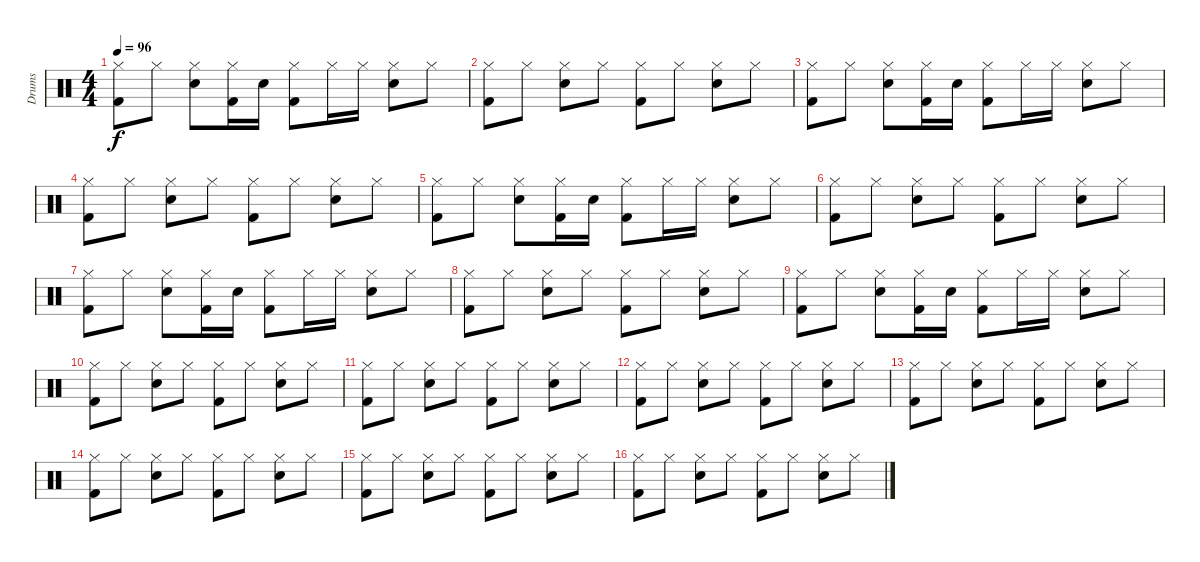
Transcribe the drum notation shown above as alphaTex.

\track ("Drums" "Drums") {instrument percussion}
\staff {score}
\articulation defaults
\ts (4 4)
\tempo 96
\clef neutral
\ks c
("Kick (hit) 2" "Hi-Hat (closed)").8{dy f} "Hi-Hat (closed)".8 ("Snare (hit) 2" "Hi-Hat (closed)").8 ("Kick (hit) 2" "Hi-Hat (closed)").16 "Snare (hit) 2".16 ("Kick (hit) 2" "Hi-Hat (closed)").8 "Hi-Hat (closed)".16 "Hi-Hat (closed)".16 ("Snare (hit) 2" "Hi-Hat (closed)").8 "Hi-Hat (closed)".8 |
("Kick (hit) 2" "Hi-Hat (closed)").8 "Hi-Hat (closed)".8 ("Snare (hit) 2" "Hi-Hat (closed)").8 "Hi-Hat (closed)".8 ("Kick (hit) 2" "Hi-Hat (closed)").8 "Hi-Hat (closed)".8 ("Snare (hit) 2" "Hi-Hat (closed)").8 "Hi-Hat (closed)".8 |
("Kick (hit) 2" "Hi-Hat (closed)").8 "Hi-Hat (closed)".8 ("Snare (hit) 2" "Hi-Hat (closed)").8 ("Kick (hit) 2" "Hi-Hat (closed)").16 "Snare (hit) 2".16 ("Kick (hit) 2" "Hi-Hat (closed)").8 "Hi-Hat (closed)".16 "Hi-Hat (closed)".16 ("Snare (hit) 2" "Hi-Hat (closed)").8 "Hi-Hat (closed)".8 |
("Kick (hit) 2" "Hi-Hat (closed)").8 "Hi-Hat (closed)".8 ("Snare (hit) 2" "Hi-Hat (closed)").8 "Hi-Hat (closed)".8 ("Kick (hit) 2" "Hi-Hat (closed)").8 "Hi-Hat (closed)".8 ("Snare (hit) 2" "Hi-Hat (closed)").8 "Hi-Hat (closed)".8 |
("Kick (hit) 2" "Hi-Hat (closed)").8 "Hi-Hat (closed)".8 ("Snare (hit) 2" "Hi-Hat (closed)").8 ("Kick (hit) 2" "Hi-Hat (closed)").16 "Snare (hit) 2".16 ("Kick (hit) 2" "Hi-Hat (closed)").8 "Hi-Hat (closed)".16 "Hi-Hat (closed)".16 ("Snare (hit) 2" "Hi-Hat (closed)").8 "Hi-Hat (closed)".8 |
("Kick (hit) 2" "Hi-Hat (closed)").8 "Hi-Hat (closed)".8 ("Snare (hit) 2" "Hi-Hat (closed)").8 "Hi-Hat (closed)".8 ("Kick (hit) 2" "Hi-Hat (closed)").8 "Hi-Hat (closed)".8 ("Snare (hit) 2" "Hi-Hat (closed)").8 "Hi-Hat (closed)".8 |
("Kick (hit) 2" "Hi-Hat (closed)").8 "Hi-Hat (closed)".8 ("Snare (hit) 2" "Hi-Hat (closed)").8 ("Kick (hit) 2" "Hi-Hat (closed)").16 "Snare (hit) 2".16 ("Kick (hit) 2" "Hi-Hat (closed)").8 "Hi-Hat (closed)".16 "Hi-Hat (closed)".16 ("Snare (hit) 2" "Hi-Hat (closed)").8 "Hi-Hat (closed)".8 |
("Kick (hit) 2" "Hi-Hat (closed)").8 "Hi-Hat (closed)".8 ("Snare (hit) 2" "Hi-Hat (closed)").8 "Hi-Hat (closed)".8 ("Kick (hit) 2" "Hi-Hat (closed)").8 "Hi-Hat (closed)".8 ("Snare (hit) 2" "Hi-Hat (closed)").8 "Hi-Hat (closed)".8 |
("Kick (hit) 2" "Hi-Hat (closed)").8 "Hi-Hat (closed)".8 ("Snare (hit) 2" "Hi-Hat (closed)").8 ("Kick (hit) 2" "Hi-Hat (closed)").16 "Snare (hit) 2".16 ("Kick (hit) 2" "Hi-Hat (closed)").8 "Hi-Hat (closed)".16 "Hi-Hat (closed)".16 ("Snare (hit) 2" "Hi-Hat (closed)").8 "Hi-Hat (closed)".8 |
("Kick (hit) 2" "Hi-Hat (closed)").8 "Hi-Hat (closed)".8 ("Snare (hit) 2" "Hi-Hat (closed)").8 "Hi-Hat (closed)".8 ("Kick (hit) 2" "Hi-Hat (closed)").8 "Hi-Hat (closed)".8 ("Snare (hit) 2" "Hi-Hat (closed)").8 "Hi-Hat (closed)".8 |
("Kick (hit) 2" "Hi-Hat (closed)").8 "Hi-Hat (closed)".8 ("Snare (hit) 2" "Hi-Hat (closed)").8 "Hi-Hat (closed)".8 ("Kick (hit) 2" "Hi-Hat (closed)").8 "Hi-Hat (closed)".8 ("Snare (hit) 2" "Hi-Hat (closed)").8 "Hi-Hat (closed)".8 |
("Kick (hit) 2" "Hi-Hat (closed)").8 "Hi-Hat (closed)".8 ("Snare (hit) 2" "Hi-Hat (closed)").8 "Hi-Hat (closed)".8 ("Kick (hit) 2" "Hi-Hat (closed)").8 "Hi-Hat (closed)".8 ("Snare (hit) 2" "Hi-Hat (closed)").8 "Hi-Hat (closed)".8 |
("Kick (hit) 2" "Hi-Hat (closed)").8 "Hi-Hat (closed)".8 ("Snare (hit) 2" "Hi-Hat (closed)").8 "Hi-Hat (closed)".8 ("Kick (hit) 2" "Hi-Hat (closed)").8 "Hi-Hat (closed)".8 ("Snare (hit) 2" "Hi-Hat (closed)").8 "Hi-Hat (closed)".8 |
("Kick (hit) 2" "Hi-Hat (closed)").8 "Hi-Hat (closed)".8 ("Snare (hit) 2" "Hi-Hat (closed)").8 "Hi-Hat (closed)".8 ("Kick (hit) 2" "Hi-Hat (closed)").8 "Hi-Hat (closed)".8 ("Snare (hit) 2" "Hi-Hat (closed)").8 "Hi-Hat (closed)".8 |
("Kick (hit) 2" "Hi-Hat (closed)").8 "Hi-Hat (closed)".8 ("Snare (hit) 2" "Hi-Hat (closed)").8 "Hi-Hat (closed)".8 ("Kick (hit) 2" "Hi-Hat (closed)").8 "Hi-Hat (closed)".8 ("Snare (hit) 2" "Hi-Hat (closed)").8 "Hi-Hat (closed)".8 |
("Kick (hit) 2" "Hi-Hat (closed)").8 "Hi-Hat (closed)".8 ("Snare (hit) 2" "Hi-Hat (closed)").8 "Hi-Hat (closed)".8 ("Kick (hit) 2" "Hi-Hat (closed)").8 "Hi-Hat (closed)".8 ("Snare (hit) 2" "Hi-Hat (closed)").8 "Hi-Hat (closed)".8
